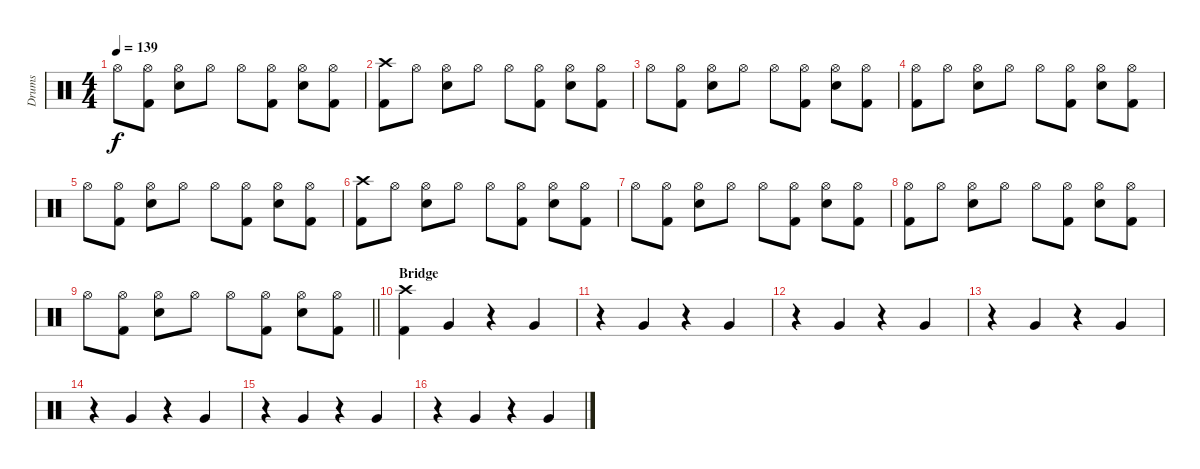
\track ("Drums" "Drums") {instrument percussion}
\staff {score}
\articulation defaults
\ts (4 4)
\tempo 139
\clef neutral
\ks c "Hi-Hat (open)".8{dy f}
("Hi-Hat (open)" "Kick (hit) 2").8 ("Hi-Hat (open)" "Snare (hit) 2").8 "Hi-Hat (open)".8 "Hi-Hat (open)".8 ("Hi-Hat (open)" "Kick (hit) 2").8 ("Hi-Hat (open)" "Snare (hit) 2").8 ("Hi-Hat (open)" "Kick (hit) 2").8 |
("Crash high (hit)" "Kick (hit) 2").8 "Hi-Hat (open)".8 ("Hi-Hat (open)" "Snare (hit) 2").8 "Hi-Hat (open)".8 "Hi-Hat (open)".8 ("Hi-Hat (open)" "Kick (hit) 2").8 ("Hi-Hat (open)" "Snare (hit) 2").8 ("Hi-Hat (open)" "Kick (hit) 2").8 |
"Hi-Hat (open)".8 ("Hi-Hat (open)" "Kick (hit) 2").8 ("Hi-Hat (open)" "Snare (hit) 2").8 "Hi-Hat (open)".8 "Hi-Hat (open)".8 ("Hi-Hat (open)" "Kick (hit) 2").8 ("Hi-Hat (open)" "Snare (hit) 2").8 ("Hi-Hat (open)" "Kick (hit) 2").8 |
("Hi-Hat (open)" "Kick (hit) 2").8 "Hi-Hat (open)".8 ("Hi-Hat (open)" "Snare (hit) 2").8 "Hi-Hat (open)".8 "Hi-Hat (open)".8 ("Hi-Hat (open)" "Kick (hit) 2").8 ("Hi-Hat (open)" "Snare (hit) 2").8 ("Hi-Hat (open)" "Kick (hit) 2").8 |
"Hi-Hat (open)".8 ("Hi-Hat (open)" "Kick (hit) 2").8 ("Hi-Hat (open)" "Snare (hit) 2").8 "Hi-Hat (open)".8 "Hi-Hat (open)".8 ("Hi-Hat (open)" "Kick (hit) 2").8 ("Hi-Hat (open)" "Snare (hit) 2").8 ("Hi-Hat (open)" "Kick (hit) 2").8 |
("Crash high (hit)" "Kick (hit) 2").8 "Hi-Hat (open)".8 ("Hi-Hat (open)" "Snare (hit) 2").8 "Hi-Hat (open)".8 "Hi-Hat (open)".8 ("Hi-Hat (open)" "Kick (hit) 2").8 ("Hi-Hat (open)" "Snare (hit) 2").8 ("Hi-Hat (open)" "Kick (hit) 2").8 |
"Hi-Hat (open)".8 ("Hi-Hat (open)" "Kick (hit) 2").8 ("Hi-Hat (open)" "Snare (hit) 2").8 "Hi-Hat (open)".8 "Hi-Hat (open)".8 ("Hi-Hat (open)" "Kick (hit) 2").8 ("Hi-Hat (open)" "Snare (hit) 2").8 ("Hi-Hat (open)" "Kick (hit) 2").8 |
("Hi-Hat (open)" "Kick (hit) 2").8 "Hi-Hat (open)".8 ("Hi-Hat (open)" "Snare (hit) 2").8 "Hi-Hat (open)".8 "Hi-Hat (open)".8 ("Hi-Hat (open)" "Kick (hit) 2").8 ("Hi-Hat (open)" "Snare (hit) 2").8 ("Hi-Hat (open)" "Kick (hit) 2").8 |
\barLineRight lightlight "Hi-Hat (open)".8
("Hi-Hat (open)" "Kick (hit) 2").8 ("Hi-Hat (open)" "Snare (hit) 2").8 "Hi-Hat (open)".8 "Hi-Hat (open)".8 ("Hi-Hat (open)" "Kick (hit) 2").8 ("Hi-Hat (open)" "Snare (hit) 2").8 ("Hi-Hat (open)" "Kick (hit) 2").8 |
\section ("" "Bridge")
("Crash high (hit)" "Kick (hit) 2").4 "Very Low Tom (hit)".4 r.4 "Very Low Tom (hit)".4 |
r.4 "Very Low Tom (hit)".4 r.4 "Very Low Tom (hit)".4 |
r.4 "Very Low Tom (hit)".4 r.4 "Very Low Tom (hit)".4 |
r.4 "Very Low Tom (hit)".4 r.4 "Very Low Tom (hit)".4 |
r.4 "Very Low Tom (hit)".4 r.4 "Very Low Tom (hit)".4 |
r.4 "Very Low Tom (hit)".4 r.4 "Very Low Tom (hit)".4 |
r.4 "Very Low Tom (hit)".4 r.4 "Very Low Tom (hit)".4
